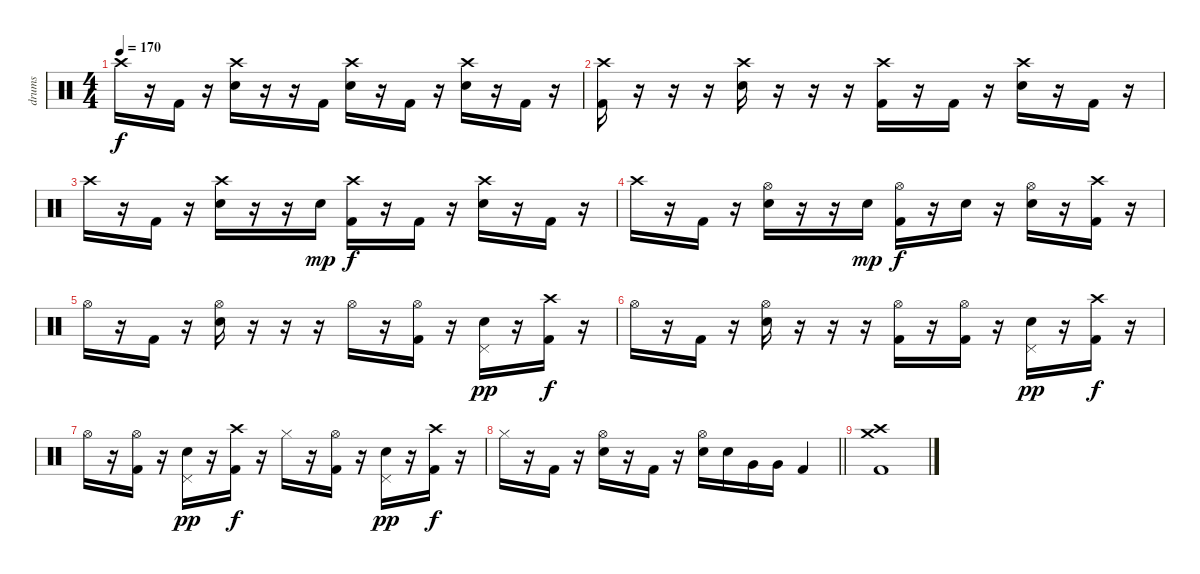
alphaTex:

\track ("drums" "drums") {instrument percussion}
\staff {score}
\articulation defaults
\ts (4 4)
\tempo 170
\clef neutral
\ks c "Crash high (hit)".16{dy f}
r.16 "Kick (hit) 2".16 r.16 ("Crash high (hit)" "Snare (hit) 2").16 r.16 r.16 "Kick (hit) 2".16 ("Crash high (hit)" "Snare (hit) 2").16 r.16 "Kick (hit) 2".16 r.16 ("Crash high (hit)" "Snare (hit) 2").16 r.16 "Kick (hit) 2".16 r.16 |
("Crash high (hit)" "Kick (hit) 2").16 r.16 r.16 r.16 ("Crash high (hit)" "Snare (hit) 2").16 r.16 r.16 r.16 ("Crash high (hit)" "Kick (hit) 2").16 r.16 "Kick (hit) 2".16 r.16 ("Crash high (hit)" "Snare (hit) 2").16 r.16 "Kick (hit) 2".16 r.16 |
"Crash high (hit)".16 r.16 "Kick (hit) 2".16 r.16 ("Crash high (hit)" "Snare (hit) 2").16 r.16 r.16 "Snare (hit) 2".16{dy mp} ("Crash high (hit)" "Kick (hit) 2").16{dy f} r.16 "Kick (hit) 2".16 r.16 ("Crash high (hit)" "Snare (hit) 2").16 r.16 "Kick (hit) 2".16 r.16 |
"Crash high (hit)".16 r.16 "Kick (hit) 2".16 r.16 ("Hi-Hat (open)" "Snare (hit) 2").16 r.16 r.16 "Snare (hit) 2".16{dy mp} ("Hi-Hat (open)" "Kick (hit) 2").16{dy f} r.16 "Snare (hit) 2".16 r.16 ("Hi-Hat (open)" "Snare (hit) 2").16 r.16 ("Crash high (hit)" "Kick (hit) 2").16 r.16 |
"Hi-Hat (open)".16 r.16 "Kick (hit) 2".16 r.16 ("Hi-Hat (open)" "Snare (hit) 2").16 r.16 r.16 r.16 "Hi-Hat (open)".16 r.16 ("Hi-Hat (open)" "Kick (hit) 2").16 r.16 ("Pedal Hi-Hat (hit)" "Snare (hit) 2").16{dy pp} r.16 ("Crash high (hit)" "Kick (hit) 2").16{dy f} r.16 |
"Hi-Hat (open)".16 r.16 "Kick (hit) 2".16 r.16 ("Hi-Hat (open)" "Snare (hit) 2").16 r.16 r.16 r.16 ("Hi-Hat (open)" "Kick (hit) 2").16 r.16 ("Hi-Hat (open)" "Kick (hit) 2").16 r.16 ("Pedal Hi-Hat (hit)" "Snare (hit) 2").16{dy pp} r.16 ("Crash high (hit)" "Kick (hit) 2").16{dy f} r.16 |
"Hi-Hat (open)".16 r.16 ("Hi-Hat (open)" "Kick (hit) 2").16 r.16 ("Pedal Hi-Hat (hit)" "Snare (hit) 2").16{dy pp} r.16 ("Crash high (hit)" "Kick (hit) 2").16{dy f} r.16 "Hi-Hat (closed)".16 r.16 ("Hi-Hat (open)" "Kick (hit) 2").16 r.16 ("Pedal Hi-Hat (hit)" "Snare (hit) 2").16{dy pp} r.16 ("Crash high (hit)" "Kick (hit) 2").16{dy f} r.16 |
\barLineRight lightlight "Hi-Hat (closed)".16
r.16 "Kick (hit) 2".16 r.16 ("Hi-Hat (open)" "Snare (hit) 2").16 r.16 "Kick (hit) 2".16 r.16 ("Hi-Hat (open)" "Snare (hit) 2").16 "Snare (hit) 2".16 "Very Low Tom (hit)".16 "Very Low Tom (hit)".16 "Kick (hit) 2".4 |
("Crash high (hit)" "Crash medium (hit)" "Kick (hit) 2").1
